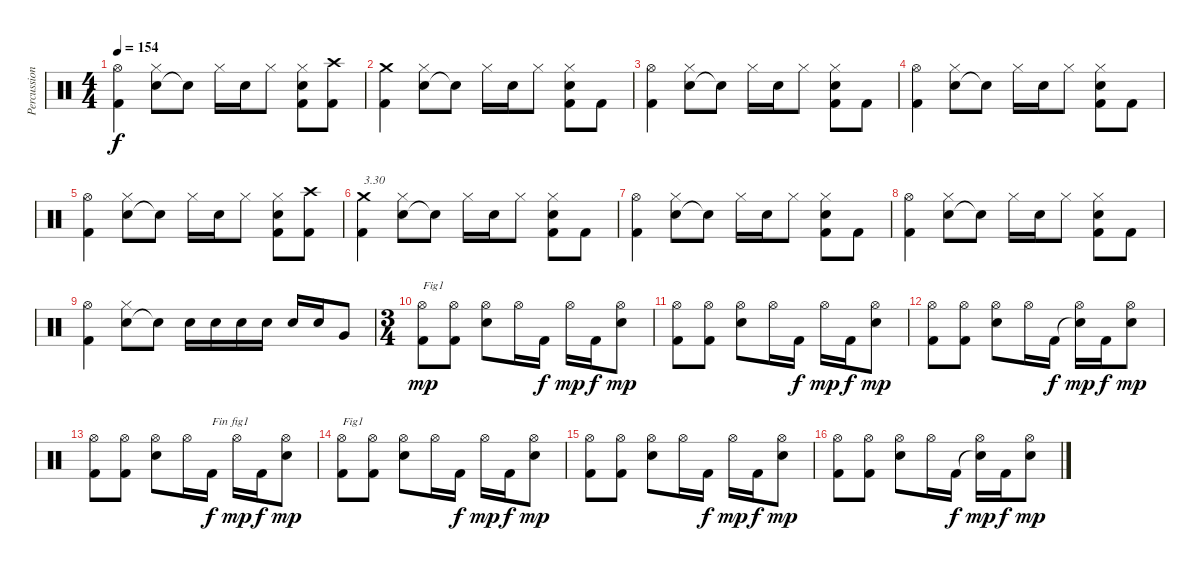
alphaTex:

\track ("Percussions" "Percussion") {instrument percussion}
\staff {score}
\articulation defaults
\ts (4 4)
\tempo 154
\clef neutral
\ks c
("Kick (hit) 2" "Hi-Hat (open)").4{dy f} ("Electric Snare (hit)" "Hi-Hat (closed)").8 "Snare (hit)"{t}.8 "Hi-Hat (closed)".16 "Electric Snare (hit)".16 "Hi-Hat (closed)".8 ("Kick (hit) 2" "Electric Snare (hit)" "Hi-Hat (closed)").8 ("Kick (hit) 2" "Crash high (hit)").8 |
("Kick (hit) 2" "Crash medium (hit)").4 ("Electric Snare (hit)" "Hi-Hat (closed)").8 "Snare (hit)"{t}.8 "Hi-Hat (closed)".16 "Electric Snare (hit)".16 "Hi-Hat (closed)".8 ("Kick (hit) 2" "Electric Snare (hit)" "Hi-Hat (closed)").8 "Kick (hit) 2".8 |
("Kick (hit) 2" "Hi-Hat (open)").4 ("Electric Snare (hit)" "Hi-Hat (closed)").8 "Snare (hit)"{t}.8 "Hi-Hat (closed)".16 "Electric Snare (hit)".16 "Hi-Hat (closed)".8 ("Kick (hit) 2" "Electric Snare (hit)" "Hi-Hat (closed)").8 "Kick (hit) 2".8 |
("Kick (hit) 2" "Hi-Hat (open)").4 ("Electric Snare (hit)" "Hi-Hat (closed)").8 "Snare (hit)"{t}.8 "Hi-Hat (closed)".16 "Electric Snare (hit)".16 "Hi-Hat (closed)".8 ("Kick (hit) 2" "Electric Snare (hit)" "Hi-Hat (closed)").8 "Kick (hit) 2".8 |
("Kick (hit) 2" "Hi-Hat (open)").4 ("Electric Snare (hit)" "Hi-Hat (closed)").8 "Snare (hit)"{t}.8 "Hi-Hat (closed)".16 "Electric Snare (hit)".16 "Hi-Hat (closed)".8 ("Kick (hit) 2" "Electric Snare (hit)" "Hi-Hat (closed)").8 ("Kick (hit) 2" "Crash high (hit)").8 |
("Kick (hit) 2" "Crash medium (hit)").4{txt "3.30"} ("Electric Snare (hit)" "Hi-Hat (closed)").8 "Snare (hit)"{t}.8 "Hi-Hat (closed)".16 "Electric Snare (hit)".16 "Hi-Hat (closed)".8 ("Kick (hit) 2" "Electric Snare (hit)" "Hi-Hat (closed)").8 "Kick (hit) 2".8 |
("Kick (hit) 2" "Hi-Hat (open)").4 ("Electric Snare (hit)" "Hi-Hat (closed)").8 "Snare (hit)"{t}.8 "Hi-Hat (closed)".16 "Electric Snare (hit)".16 "Hi-Hat (closed)".8 ("Kick (hit) 2" "Electric Snare (hit)" "Hi-Hat (closed)").8 "Kick (hit) 2".8 |
("Kick (hit) 2" "Hi-Hat (open)").4 ("Electric Snare (hit)" "Hi-Hat (closed)").8 "Snare (hit)"{t}.8 "Hi-Hat (closed)".16 "Electric Snare (hit)".16 "Hi-Hat (closed)".8 ("Kick (hit) 2" "Electric Snare (hit)" "Hi-Hat (closed)").8 "Kick (hit) 2".8 |
("Kick (hit) 2" "Hi-Hat (open)").4 ("Electric Snare (hit)" "Hi-Hat (closed)").8 "Snare (hit)"{t}.8 "Electric Snare (hit)".16 "Electric Snare (hit)".16 "Electric Snare (hit)".16 "Electric Snare (hit)".16 "Electric Snare (hit)".16 "Electric Snare (hit)".16 "Very Low Tom (hit)".8 |
\ts (3 4)
("Kick (hit) 2" "Hi-Hat (open)").8{txt "Fig1" dy mp} ("Kick (hit) 2" "Hi-Hat (open)").8 ("Electric Snare (hit)" "Hi-Hat (open)").8 "Hi-Hat (open)".16 "Kick (hit) 2".16{dy f} "Hi-Hat (open)".16{dy mp} "Kick (hit) 2".16{dy f} ("Electric Snare (hit)" "Hi-Hat (open)").8{dy mp} |
("Kick (hit) 2" "Hi-Hat (open)").8 ("Kick (hit) 2" "Hi-Hat (open)").8 ("Electric Snare (hit)" "Hi-Hat (open)").8 "Hi-Hat (open)".16 "Kick (hit) 2".16{dy f} "Hi-Hat (open)".16{dy mp} "Kick (hit) 2".16{dy f} ("Electric Snare (hit)" "Hi-Hat (open)").8{dy mp} |
("Kick (hit) 2" "Hi-Hat (open)").8 ("Kick (hit) 2" "Hi-Hat (open)").8 ("Electric Snare (hit)" "Hi-Hat (open)").8 "Hi-Hat (open)".16 "Kick (hit) 2".16{dy f} ("Snare (hit)"{t} "Hi-Hat (open)").16{dy mp} "Kick (hit) 2".16{dy f} ("Electric Snare (hit)" "Hi-Hat (open)").8{dy mp} |
("Kick (hit) 2" "Hi-Hat (open)").8 ("Kick (hit) 2" "Hi-Hat (open)").8 ("Electric Snare (hit)" "Hi-Hat (open)").8 "Hi-Hat (open)".16 "Kick (hit) 2".16{txt "Fin fig1" dy f} "Hi-Hat (open)".16{dy mp} "Kick (hit) 2".16{dy f} ("Electric Snare (hit)" "Hi-Hat (open)").8{dy mp} |
("Kick (hit) 2" "Hi-Hat (open)").8{txt "Fig1"} ("Kick (hit) 2" "Hi-Hat (open)").8 ("Electric Snare (hit)" "Hi-Hat (open)").8 "Hi-Hat (open)".16 "Kick (hit) 2".16{dy f} "Hi-Hat (open)".16{dy mp} "Kick (hit) 2".16{dy f} ("Electric Snare (hit)" "Hi-Hat (open)").8{dy mp} |
("Kick (hit) 2" "Hi-Hat (open)").8 ("Kick (hit) 2" "Hi-Hat (open)").8 ("Electric Snare (hit)" "Hi-Hat (open)").8 "Hi-Hat (open)".16 "Kick (hit) 2".16{dy f} "Hi-Hat (open)".16{dy mp} "Kick (hit) 2".16{dy f} ("Electric Snare (hit)" "Hi-Hat (open)").8{dy mp} |
("Kick (hit) 2" "Hi-Hat (open)").8 ("Kick (hit) 2" "Hi-Hat (open)").8 ("Electric Snare (hit)" "Hi-Hat (open)").8 "Hi-Hat (open)".16 "Kick (hit) 2".16{dy f} ("Snare (hit)"{t} "Hi-Hat (open)").16{dy mp} "Kick (hit) 2".16{dy f} ("Electric Snare (hit)" "Hi-Hat (open)").8{dy mp}
